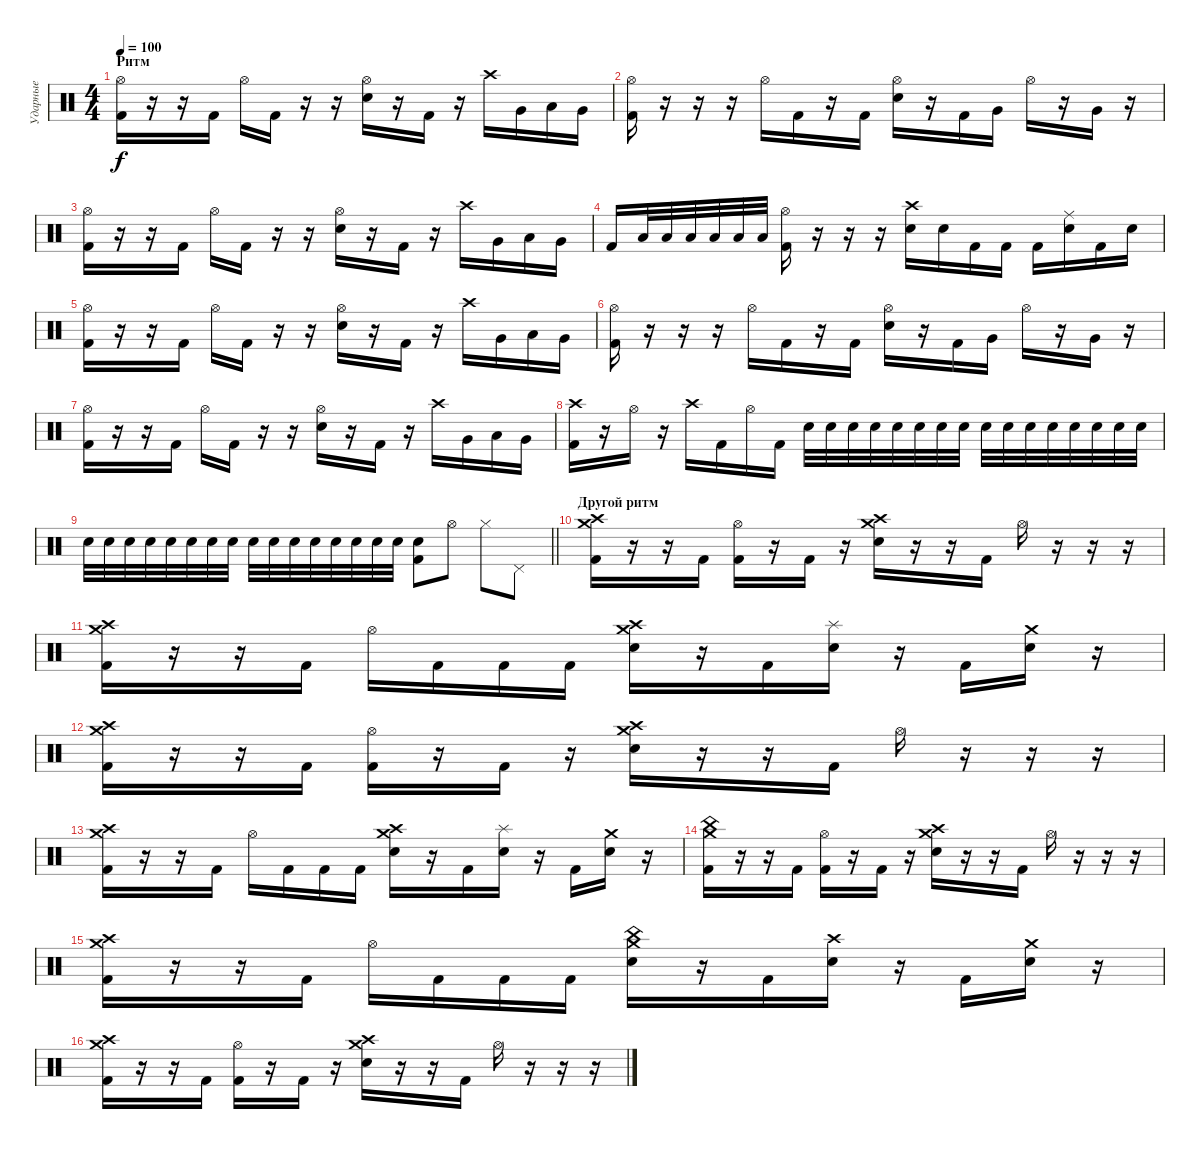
\track ("Ударные" "Ударные") {instrument percussion}
\staff {score}
\articulation defaults
\ts (4 4)
\section ("" "Ритм")
\tempo 100
\clef neutral
\ks c
("Hi-Hat (open)" "Kick (hit) 2").16{dy f} r.16 r.16 "Kick (hit) 2".16 "Hi-Hat (open)".16 "Kick (hit) 2".16 r.16 r.16 ("Hi-Hat (open)" "Snare (hit) 2").16 r.16 "Kick (hit) 2".16 r.16 "Crash high (hit)".16 "Very Low Tom (hit)".16 "Low Tom (hit)".16 "Very Low Tom (hit)".16 |
("Hi-Hat (open)" "Kick (hit) 2").16 r.16 r.16 r.16 "Hi-Hat (open)".16 "Kick (hit) 2".16 r.16 "Kick (hit) 2".16 ("Hi-Hat (open)" "Snare (hit) 2").16 r.16 "Kick (hit) 2".16 "Very Low Tom (hit)".16 "Hi-Hat (open)".16 r.16 "Very Low Tom (hit)".16 r.16 |
("Hi-Hat (open)" "Kick (hit) 2").16 r.16 r.16 "Kick (hit) 2".16 "Hi-Hat (open)".16 "Kick (hit) 2".16 r.16 r.16 ("Hi-Hat (open)" "Snare (hit) 2").16 r.16 "Kick (hit) 2".16 r.16 "Crash high (hit)".16 "Very Low Tom (hit)".16 "Low Tom (hit)".16 "Very Low Tom (hit)".16 |
"Kick (hit) 2".16 "Low Floor Tom (hit)".32 "Low Floor Tom (hit)".32 "Low Floor Tom (hit)".32 "Low Floor Tom (hit)".32 "Low Floor Tom (hit)".32 "Low Floor Tom (hit)".32 ("Hi-Hat (open)" "Kick (hit) 2").16 r.16 r.16 r.16 ("Crash high (hit)" "Snare (hit) 2").16 "Snare (hit) 2".16 "Kick (hit) 2".16 "Kick (hit) 2".16 "Kick (hit) 2".16 ("Ride (middle)" "Snare (hit) 2").16 "Kick (hit) 2".16 "Snare (hit) 2".16 |
("Hi-Hat (open)" "Kick (hit) 2").16 r.16 r.16 "Kick (hit) 2".16 "Hi-Hat (open)".16 "Kick (hit) 2".16 r.16 r.16 ("Hi-Hat (open)" "Snare (hit) 2").16 r.16 "Kick (hit) 2".16 r.16 "Crash high (hit)".16 "Very Low Tom (hit)".16 "Low Tom (hit)".16 "Very Low Tom (hit)".16 |
("Hi-Hat (open)" "Kick (hit) 2").16 r.16 r.16 r.16 "Hi-Hat (open)".16 "Kick (hit) 2".16 r.16 "Kick (hit) 2".16 ("Hi-Hat (open)" "Snare (hit) 2").16 r.16 "Kick (hit) 2".16 "Very Low Tom (hit)".16 "Hi-Hat (open)".16 r.16 "Very Low Tom (hit)".16 r.16 |
("Hi-Hat (open)" "Kick (hit) 2").16 r.16 r.16 "Kick (hit) 2".16 "Hi-Hat (open)".16 "Kick (hit) 2".16 r.16 r.16 ("Hi-Hat (open)" "Snare (hit) 2").16 r.16 "Kick (hit) 2".16 r.16 "Crash high (hit)".16 "Very Low Tom (hit)".16 "Low Tom (hit)".16 "Very Low Tom (hit)".16 |
("Crash high (hit)" "Kick (hit) 2").16 r.16 "Hi-Hat (open)".16 r.16 "Crash high (hit)".16 "Kick (hit) 2".16 "Hi-Hat (open)".16 "Kick (hit) 2".16 "Snare (hit) 2".32 "Snare (hit) 2".32 "Snare (hit) 2".32 "Snare (hit) 2".32 "Snare (hit) 2".32 "Snare (hit) 2".32 "Snare (hit) 2".32 "Snare (hit) 2".32 "Snare (hit) 2".32 "Snare (hit) 2".32 "Snare (hit) 2".32 "Snare (hit) 2".32 "Snare (hit) 2".32 "Snare (hit) 2".32 "Snare (hit) 2".32 "Snare (hit) 2".32 |
\barLineRight lightlight "Snare (hit) 2".32 "Snare (hit) 2".32 "Snare (hit) 2".32 "Snare (hit) 2".32 "Snare (hit) 2".32 "Snare (hit) 2".32 "Snare (hit) 2".32 "Snare (hit) 2".32 "Snare (hit) 2".32 "Snare (hit) 2".32 "Snare (hit) 2".32 "Snare (hit) 2".32 "Snare (hit) 2".32 "Snare (hit) 2".32 "Snare (hit) 2".32 "Snare (hit) 2".32
("Snare (hit) 2" "Kick (hit) 2").8 "Hi-Hat (open)".8 "Hi-Hat (closed)".8 "Pedal Hi-Hat (hit)".8 |
\section ("" "Другой ритм")
("Crash high (hit)" "Crash medium (hit)" "Kick (hit) 2").16 r.16 r.16 "Kick (hit) 2".16 ("Hi-Hat (open)" "Kick (hit) 2").16 r.16 "Kick (hit) 2".16 r.16 ("Crash high (hit)" "Crash medium (hit)" "Snare (hit) 2").16 r.16 r.16 "Kick (hit) 2".16 "Hi-Hat (open)".16 r.16 r.16 r.16 |
("Crash high (hit)" "Crash medium (hit)" "Kick (hit) 2").16 r.16 r.16 "Kick (hit) 2".16 "Hi-Hat (open)".16 "Kick (hit) 2".16 "Kick (hit) 2".16 "Kick (hit) 2".16 ("Crash high (hit)" "Crash medium (hit)" "Snare (hit) 2").16 r.16 "Kick (hit) 2".16 ("Splash (hit)" "Snare (hit) 2").16 r.16 "Kick (hit) 2".16 ("Crash medium (hit)" "Snare (hit) 2").16 r.16 |
("Crash high (hit)" "Crash medium (hit)" "Kick (hit) 2").16 r.16 r.16 "Kick (hit) 2".16 ("Hi-Hat (open)" "Kick (hit) 2").16 r.16 "Kick (hit) 2".16 r.16 ("Crash high (hit)" "Crash medium (hit)" "Snare (hit) 2").16 r.16 r.16 "Kick (hit) 2".16 "Hi-Hat (open)".16 r.16 r.16 r.16 |
("Crash high (hit)" "Crash medium (hit)" "Kick (hit) 2").16 r.16 r.16 "Kick (hit) 2".16 "Hi-Hat (open)".16 "Kick (hit) 2".16 "Kick (hit) 2".16 "Kick (hit) 2".16 ("Crash high (hit)" "Crash medium (hit)" "Snare (hit) 2").16 r.16 "Kick (hit) 2".16 ("Splash (hit)" "Snare (hit) 2").16 r.16 "Kick (hit) 2".16 ("Crash medium (hit)" "Snare (hit) 2").16 r.16 |
("China (hit)" "Crash medium (hit)" "Kick (hit) 2").16 r.16 r.16 "Kick (hit) 2".16 ("Hi-Hat (open)" "Kick (hit) 2").16 r.16 "Kick (hit) 2".16 r.16 ("Crash high (hit)" "Crash medium (hit)" "Snare (hit) 2").16 r.16 r.16 "Kick (hit) 2".16 "Hi-Hat (open)".16 r.16 r.16 r.16 |
("Crash high (hit)" "Crash medium (hit)" "Kick (hit) 2").16 r.16 r.16 "Kick (hit) 2".16 "Hi-Hat (open)".16 "Kick (hit) 2".16 "Kick (hit) 2".16 "Kick (hit) 2".16 ("China (hit)" "Crash medium (hit)" "Snare (hit) 2").16 r.16 "Kick (hit) 2".16 ("Crash high (hit)" "Snare (hit) 2").16 r.16 "Kick (hit) 2".16 ("Crash medium (hit)" "Snare (hit) 2").16 r.16 |
("Crash high (hit)" "Crash medium (hit)" "Kick (hit) 2").16 r.16 r.16 "Kick (hit) 2".16 ("Hi-Hat (open)" "Kick (hit) 2").16 r.16 "Kick (hit) 2".16 r.16 ("Crash high (hit)" "Crash medium (hit)" "Snare (hit) 2").16 r.16 r.16 "Kick (hit) 2".16 "Hi-Hat (open)".16 r.16 r.16 r.16
